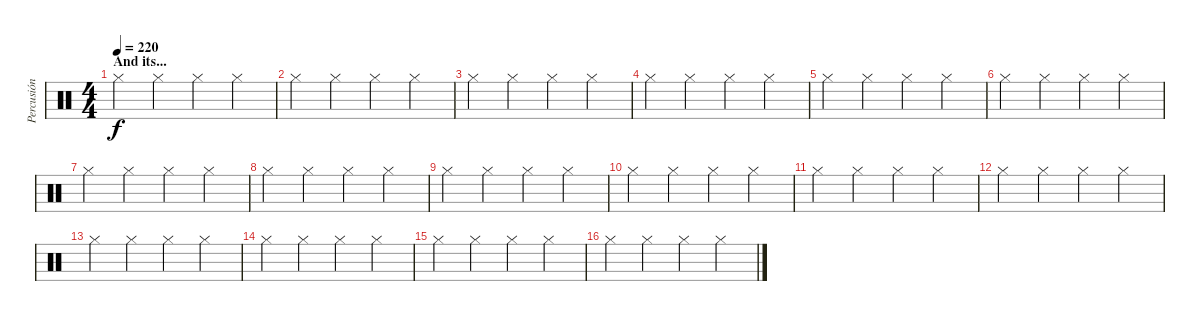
\track ("Percusión" "Percusión") {instrument percussion}
\staff {score}
\articulation defaults
\ts (4 4)
\section ("" "And its...")
\tempo 220
\clef neutral
\ks c "Hi-Hat (closed)".4{dy f} "Hi-Hat (closed)".4 "Hi-Hat (closed)".4 "Hi-Hat (closed)".4
|
"Hi-Hat (closed)".4 "Hi-Hat (closed)".4 "Hi-Hat (closed)".4 "Hi-Hat (closed)".4 |
"Hi-Hat (closed)".4 "Hi-Hat (closed)".4 "Hi-Hat (closed)".4 "Hi-Hat (closed)".4 |
"Hi-Hat (closed)".4 "Hi-Hat (closed)".4 "Hi-Hat (closed)".4 "Hi-Hat (closed)".4 |
"Hi-Hat (closed)".4 "Hi-Hat (closed)".4 "Hi-Hat (closed)".4 "Hi-Hat (closed)".4 |
"Hi-Hat (closed)".4 "Hi-Hat (closed)".4 "Hi-Hat (closed)".4 "Hi-Hat (closed)".4 |
"Hi-Hat (closed)".4 "Hi-Hat (closed)".4 "Hi-Hat (closed)".4 "Hi-Hat (closed)".4 |
"Hi-Hat (closed)".4 "Hi-Hat (closed)".4 "Hi-Hat (closed)".4 "Hi-Hat (closed)".4 |
"Hi-Hat (closed)".4 "Hi-Hat (closed)".4 "Hi-Hat (closed)".4 "Hi-Hat (closed)".4 |
"Hi-Hat (closed)".4 "Hi-Hat (closed)".4 "Hi-Hat (closed)".4 "Hi-Hat (closed)".4 |
"Hi-Hat (closed)".4 "Hi-Hat (closed)".4 "Hi-Hat (closed)".4 "Hi-Hat (closed)".4 |
"Hi-Hat (closed)".4 "Hi-Hat (closed)".4 "Hi-Hat (closed)".4 "Hi-Hat (closed)".4 |
"Hi-Hat (closed)".4 "Hi-Hat (closed)".4 "Hi-Hat (closed)".4 "Hi-Hat (closed)".4 |
"Hi-Hat (closed)".4 "Hi-Hat (closed)".4 "Hi-Hat (closed)".4 "Hi-Hat (closed)".4 |
"Hi-Hat (closed)".4 "Hi-Hat (closed)".4 "Hi-Hat (closed)".4 "Hi-Hat (closed)".4 |
"Hi-Hat (closed)".4 "Hi-Hat (closed)".4 "Hi-Hat (closed)".4 "Hi-Hat (closed)".4
